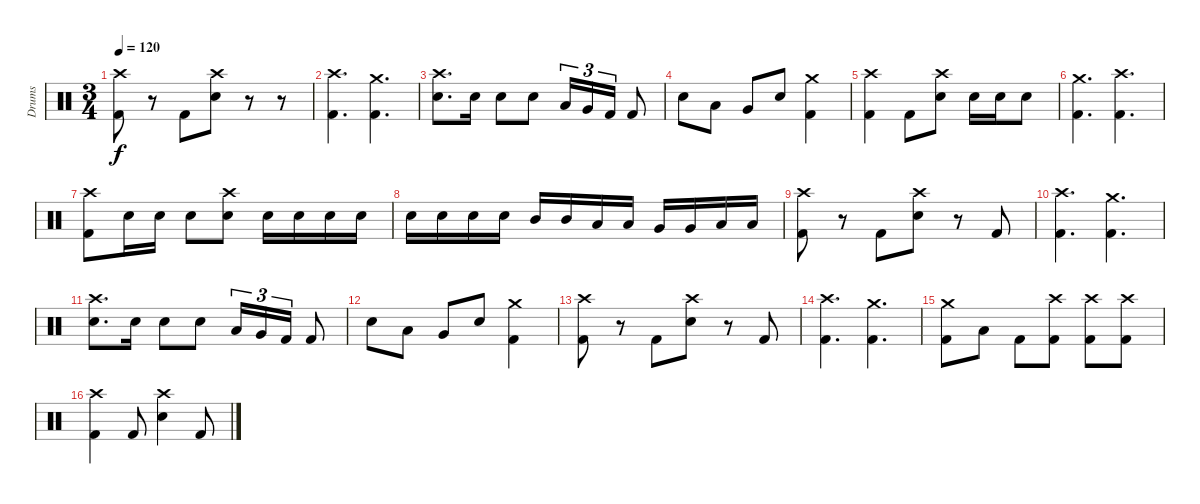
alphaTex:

\track ("Drums" "Drums") {instrument percussion}
\staff {score}
\articulation defaults
\ts (3 4)
\tempo 120
\clef neutral
\ks c
("Crash high (hit)" "Kick (hit) 2").8{dy f} r.8 "Kick (hit) 2".8 ("Crash high (hit)" "Snare (hit) 2").8 r.8 r.8 |
("Crash high (hit)" "Kick (hit) 2").4{d} ("Crash medium (hit)" "Kick (hit) 2").4{d} |
("Crash high (hit)" "Snare (hit) 2").8{d} "Snare (hit) 2".16 "Snare (hit) 2".8 "Snare (hit) 2".8 "Low Tom (hit)".16{tu (3 2)} "Very Low Tom (hit)".16{tu (3 2)} "Kick (hit) 2".16{tu (3 2)} "Kick (hit) 2".8 |
"Snare (hit) 2".8 "Low Tom (hit)".8 "Very Low Tom (hit)".8 "Snare (hit) 2".8 ("Crash medium (hit)" "Kick (hit) 2").4 |
("Crash high (hit)" "Kick (hit) 2").4 "Kick (hit) 2".8 ("Crash high (hit)" "Snare (hit) 2").8 "Snare (hit) 2".16 "Snare (hit) 2".16 "Snare (hit) 2".8 |
("Crash medium (hit)" "Kick (hit) 2").4{d} ("Crash high (hit)" "Kick (hit) 2").4{d} |
("Crash high (hit)" "Kick (hit) 2").8 "Snare (hit) 2".16 "Snare (hit) 2".16 "Snare (hit) 2".8 ("Crash high (hit)" "Snare (hit) 2").8 "Snare (hit) 2".16 "Snare (hit) 2".16 "Snare (hit) 2".16 "Snare (hit) 2".16 |
"Snare (hit) 2".16 "Snare (hit) 2".16 "Snare (hit) 2".16 "Snare (hit) 2".16 "Mid Tom (hit)".16 "Mid Tom (hit)".16 "Low Tom (hit)".16 "Low Tom (hit)".16 "Very Low Tom (hit)".16 "Very Low Tom (hit)".16 "Low Floor Tom (hit)".16 "Low Floor Tom (hit)".16 |
("Crash high (hit)" "Kick (hit) 2").8 r.8 "Kick (hit) 2".8 ("Crash high (hit)" "Snare (hit) 2").8 r.8 "Kick (hit) 2".8 |
("Crash high (hit)" "Kick (hit) 2").4{d} ("Crash medium (hit)" "Kick (hit) 2").4{d} |
("Crash high (hit)" "Snare (hit) 2").8{d} "Snare (hit) 2".16 "Snare (hit) 2".8 "Snare (hit) 2".8 "Low Tom (hit)".16{tu (3 2)} "Very Low Tom (hit)".16{tu (3 2)} "Kick (hit) 2".16{tu (3 2)} "Kick (hit) 2".8 |
"Snare (hit) 2".8 "Low Tom (hit)".8 "Very Low Tom (hit)".8 "Snare (hit) 2".8 ("Crash medium (hit)" "Kick (hit) 2").4 |
("Crash high (hit)" "Kick (hit) 2").8 r.8 "Kick (hit) 2".8 ("Crash high (hit)" "Snare (hit) 2").8 r.8 "Kick (hit) 2".8 |
("Crash high (hit)" "Kick (hit) 2").4{d} ("Crash medium (hit)" "Kick (hit) 2").4{d} |
("Crash medium (hit)" "Kick (hit) 2").8 "Low Floor Tom (hit)".8 "Kick (hit) 2".8 ("Crash high (hit)" "Kick (hit) 2").8 ("Crash high (hit)" "Kick (hit) 2").8 ("Crash high (hit)" "Kick (hit) 2").8 |
("Crash high (hit)" "Kick (hit) 2").4 "Kick (hit) 2".8 ("Crash high (hit)" "Snare (hit) 2").4 "Kick (hit) 2".8
